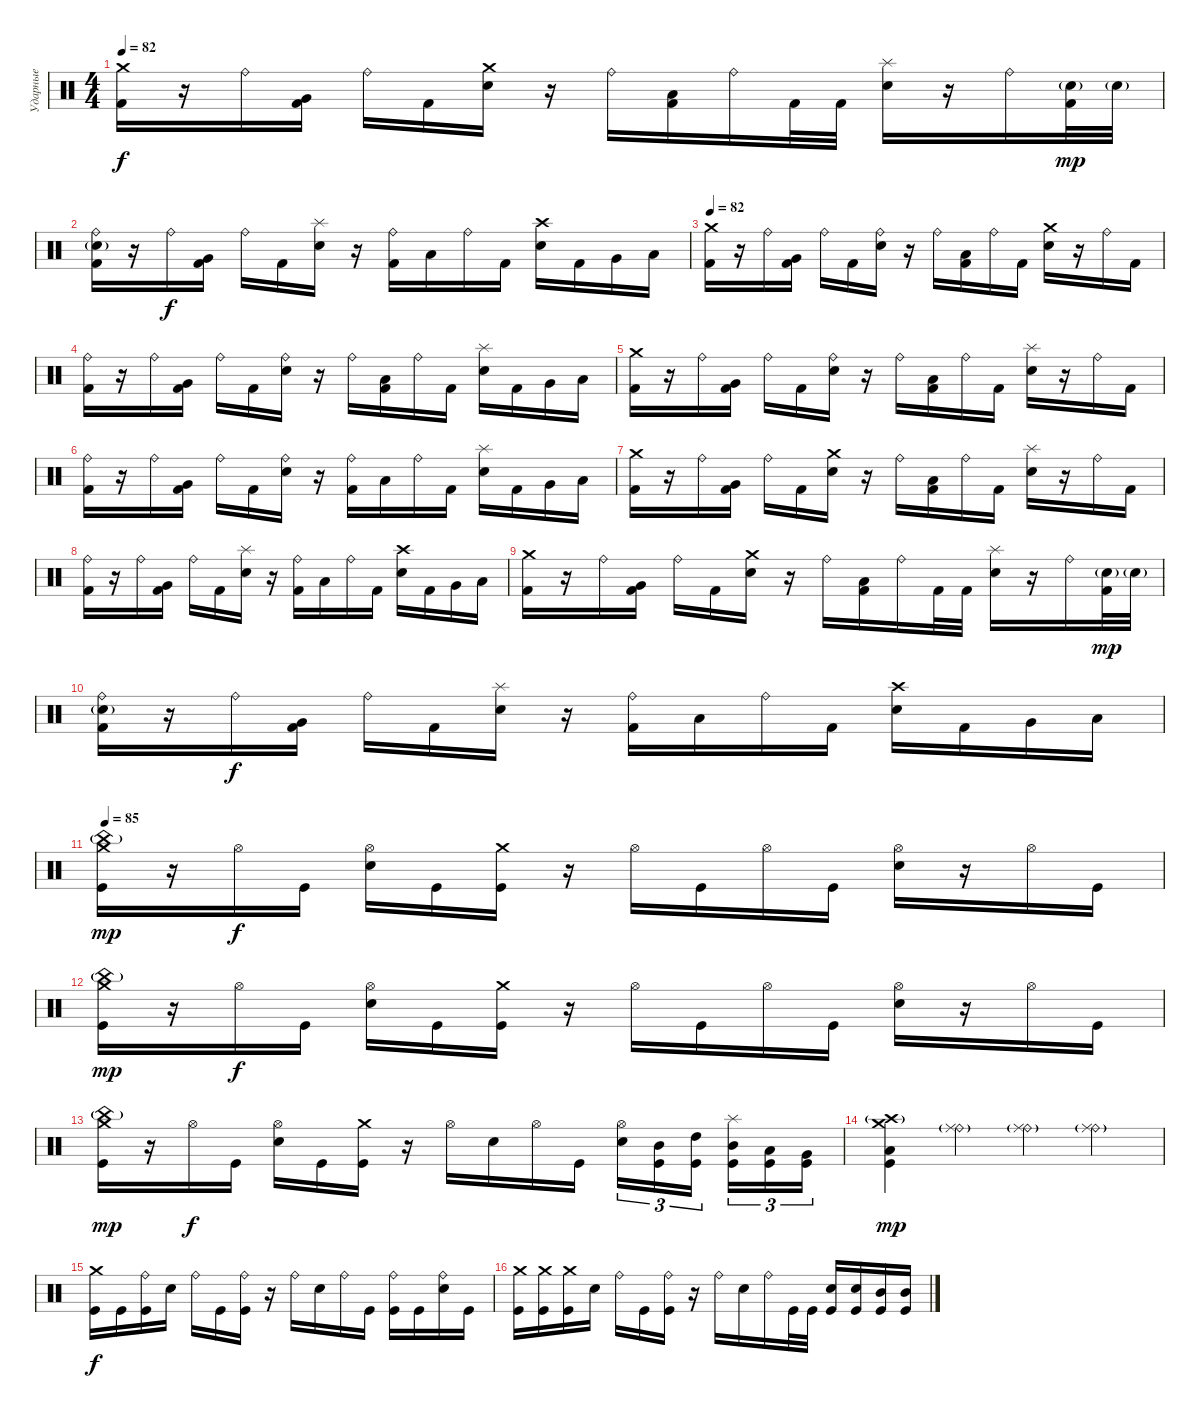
\track ("Ударные" "Ударные") {instrument percussion}
\staff {score}
\articulation defaults
\ts (4 4)
\tempo 82
\clef neutral
\ks c
("Crash medium (hit)" "Kick (hit) 2").16{dy f} r.16 "Ride (bell)".16 ("Very Low Tom (hit)" "Kick (hit) 2").16 "Ride (bell)".16 "Kick (hit) 2".16 ("Crash medium (hit)" "Snare (hit) 2").16 r.16 "Ride (bell)".16 ("Low Floor Tom (hit)" "Kick (hit) 2").16 "Ride (bell)".16 "Kick (hit) 2".32 "Kick (hit) 2".32 ("Splash (hit)" "Snare (hit) 2").16 r.16 "Ride (bell)".16 ("Snare (hit) 2"{g} "Kick (hit) 2").32{dy mp} "Snare (hit) 2"{g}.32 |
("Ride (bell)" "Snare (hit) 2"{g} "Kick (hit) 2").16 r.16 "Ride (bell)".16{dy f} ("Very Low Tom (hit)" "Kick (hit) 2").16 "Ride (bell)".16 "Kick (hit) 2".16 ("Splash (hit)" "Snare (hit) 2").16 r.16 ("Ride (bell)" "Kick (hit) 2").16 "Low Floor Tom (hit)".16 "Ride (bell)".16 "Kick (hit) 2".16 ("Crash high (hit)" "Snare (hit) 2").16 "Kick (hit) 2".16 "Very Low Tom (hit)".16 "Low Floor Tom (hit)".16 |
\tempo 82
("Crash medium (hit)" "Kick (hit) 2").16 r.16 "Ride (bell)".16 ("Very Low Tom (hit)" "Kick (hit) 2").16 "Ride (bell)".16 "Kick (hit) 2".16 ("Ride (bell)" "Snare (hit) 2").16 r.16 "Ride (bell)".16 ("Low Floor Tom (hit)" "Kick (hit) 2").16 "Ride (bell)".16 "Kick (hit) 2".16 ("Crash medium (hit)" "Snare (hit) 2").16 r.16 "Ride (bell)".16 "Kick (hit) 2".16 |
("Ride (bell)" "Kick (hit) 2").16 r.16 "Ride (bell)".16 ("Very Low Tom (hit)" "Kick (hit) 2").16 "Ride (bell)".16 "Kick (hit) 2".16 ("Ride (bell)" "Snare (hit) 2").16 r.16 "Ride (bell)".16 ("Low Floor Tom (hit)" "Kick (hit) 2").16 "Ride (bell)".16 "Kick (hit) 2".16 ("Splash (hit)" "Snare (hit) 2").16 "Kick (hit) 2".16 "Very Low Tom (hit)".16 "Low Floor Tom (hit)".16 |
("Crash medium (hit)" "Kick (hit) 2").16 r.16 "Ride (bell)".16 ("Very Low Tom (hit)" "Kick (hit) 2").16 "Ride (bell)".16 "Kick (hit) 2".16 ("Ride (bell)" "Snare (hit) 2").16 r.16 "Ride (bell)".16 ("Low Floor Tom (hit)" "Kick (hit) 2").16 "Ride (bell)".16 "Kick (hit) 2".16 ("Splash (hit)" "Snare (hit) 2").16 r.16 "Ride (bell)".16 "Kick (hit) 2".16 |
("Ride (bell)" "Kick (hit) 2").16 r.16 "Ride (bell)".16 ("Very Low Tom (hit)" "Kick (hit) 2").16 "Ride (bell)".16 "Kick (hit) 2".16 ("Ride (bell)" "Snare (hit) 2").16 r.16 ("Ride (bell)" "Kick (hit) 2").16 "Low Floor Tom (hit)".16 "Ride (bell)".16 "Kick (hit) 2".16 ("Splash (hit)" "Snare (hit) 2").16 "Kick (hit) 2".16 "Very Low Tom (hit)".16 "Low Floor Tom (hit)".16 |
("Crash medium (hit)" "Kick (hit) 2").16 r.16 "Ride (bell)".16 ("Very Low Tom (hit)" "Kick (hit) 2").16 "Ride (bell)".16 "Kick (hit) 2".16 ("Crash medium (hit)" "Snare (hit) 2").16 r.16 "Ride (bell)".16 ("Low Floor Tom (hit)" "Kick (hit) 2").16 "Ride (bell)".16 "Kick (hit) 2".16 ("Splash (hit)" "Snare (hit) 2").16 r.16 "Ride (bell)".16 "Kick (hit) 2".16 |
("Ride (bell)" "Kick (hit) 2").16 r.16 "Ride (bell)".16 ("Very Low Tom (hit)" "Kick (hit) 2").16 "Ride (bell)".16 "Kick (hit) 2".16 ("Splash (hit)" "Snare (hit) 2").16 r.16 ("Ride (bell)" "Kick (hit) 2").16 "Low Floor Tom (hit)".16 "Ride (bell)".16 "Kick (hit) 2".16 ("Crash high (hit)" "Snare (hit) 2").16 "Kick (hit) 2".16 "Very Low Tom (hit)".16 "Low Floor Tom (hit)".16 |
("Crash medium (hit)" "Kick (hit) 2").16 r.16 "Ride (bell)".16 ("Very Low Tom (hit)" "Kick (hit) 2").16 "Ride (bell)".16 "Kick (hit) 2".16 ("Crash medium (hit)" "Snare (hit) 2").16 r.16 "Ride (bell)".16 ("Low Floor Tom (hit)" "Kick (hit) 2").16 "Ride (bell)".16 "Kick (hit) 2".32 "Kick (hit) 2".32 ("Splash (hit)" "Snare (hit) 2").16 r.16 "Ride (bell)".16 ("Snare (hit) 2"{g} "Kick (hit) 2").32{dy mp} "Snare (hit) 2"{g}.32 |
("Ride (bell)" "Snare (hit) 2"{g} "Kick (hit) 2").16 r.16 "Ride (bell)".16{dy f} ("Very Low Tom (hit)" "Kick (hit) 2").16 "Ride (bell)".16 "Kick (hit) 2".16 ("Splash (hit)" "Snare (hit) 2").16 r.16 ("Ride (bell)" "Kick (hit) 2").16 "Low Floor Tom (hit)".16 "Ride (bell)".16 "Kick (hit) 2".16 ("Crash high (hit)" "Snare (hit) 2").16 "Kick (hit) 2".16 "Very Low Tom (hit)".16 "Low Floor Tom (hit)".16 |
\tempo 85
("Crash medium (hit)" "China (hit)"{g} "Kick (hit)").16{dy mp} r.16 "Hi-Hat (open)".16{dy f} "Kick (hit)".16 ("Hi-Hat (open)" "Snare (hit) 2").16 "Kick (hit)".16 ("Crash medium (hit)" "Kick (hit)").16 r.16 "Hi-Hat (open)".16 "Kick (hit)".16 "Hi-Hat (open)".16 "Kick (hit)".16 ("Hi-Hat (open)" "Snare (hit) 2").16 r.16 "Hi-Hat (open)".16 "Kick (hit)".16 |
("Crash medium (hit)" "China (hit)"{g} "Kick (hit)").16{dy mp} r.16 "Hi-Hat (open)".16{dy f} "Kick (hit)".16 ("Hi-Hat (open)" "Snare (hit) 2").16 "Kick (hit)".16 ("Crash medium (hit)" "Kick (hit)").16 r.16 "Hi-Hat (open)".16 "Kick (hit)".16 "Hi-Hat (open)".16 "Kick (hit)".16 ("Hi-Hat (open)" "Snare (hit) 2").16 r.16 "Hi-Hat (open)".16 "Kick (hit)".16 |
("Crash medium (hit)" "China (hit)"{g} "Kick (hit)").16{dy mp} r.16 "Hi-Hat (open)".16{dy f} "Kick (hit)".16 ("Hi-Hat (open)" "Snare (hit) 2").16 "Kick (hit)".16 ("Crash medium (hit)" "Kick (hit)").16 r.16 "Hi-Hat (open)".16 "Snare (hit) 2".16 "Hi-Hat (open)".16 "Kick (hit)".16 ("Hi-Hat (open)" "Snare (hit) 2").16{tu (3 2)} ("Mid Tom (hit)" "Kick (hit)").16{tu (3 2)} ("High Tom (hit)" "Kick (hit)").16{tu (3 2) beam splitsecondary} ("Splash (hit)" "Mid Tom (hit)" "Kick (hit)").16{tu (3 2)} ("Low Tom (hit)" "Kick (hit)").16{tu (3 2)} ("Very Low Tom (hit)" "Kick (hit)").16{tu (3 2)} |
("Crash medium (hit)" "Crash high (hit)"{g} "Low Floor Tom (hit)" "Kick (hit)").4{dy mp} ("Ride (bell)"{g} "Ride (middle)").4 ("Ride (bell)"{g} "Ride (middle)").4 ("Ride (bell)"{g} "Ride (middle)").4 |
("Crash medium (hit)" "Kick (hit)").16{dy f} "Kick (hit)".16 ("Ride (bell)" "Kick (hit)").16 "Snare (hit) 2".16 "Ride (bell)".16 "Kick (hit)".16 ("Ride (bell)" "Kick (hit)").16 r.16 "Ride (bell)".16 "Snare (hit) 2".16 "Ride (bell)".16 "Kick (hit)".16 ("Ride (bell)" "Kick (hit)").16 "Kick (hit)".16 ("Ride (bell)" "Snare (hit) 2").16 "Kick (hit)".16 |
("Crash medium (hit)" "Kick (hit)").16 ("Crash medium (hit)" "Kick (hit)").16 ("Crash medium (hit)" "Kick (hit)").16 "Snare (hit) 2".16 "Ride (bell)".16 "Kick (hit)".16 ("Ride (bell)" "Kick (hit)").16 r.16 "Ride (bell)".16 "Snare (hit) 2".16 "Ride (bell)".16 "Kick (hit)".32 "Kick (hit)".32 ("Snare (hit) 2" "Kick (hit)").16 ("Snare (hit) 2" "Kick (hit)").16 ("Mid Tom (hit)" "Kick (hit)").16 ("Mid Tom (hit)" "Kick (hit)").16
